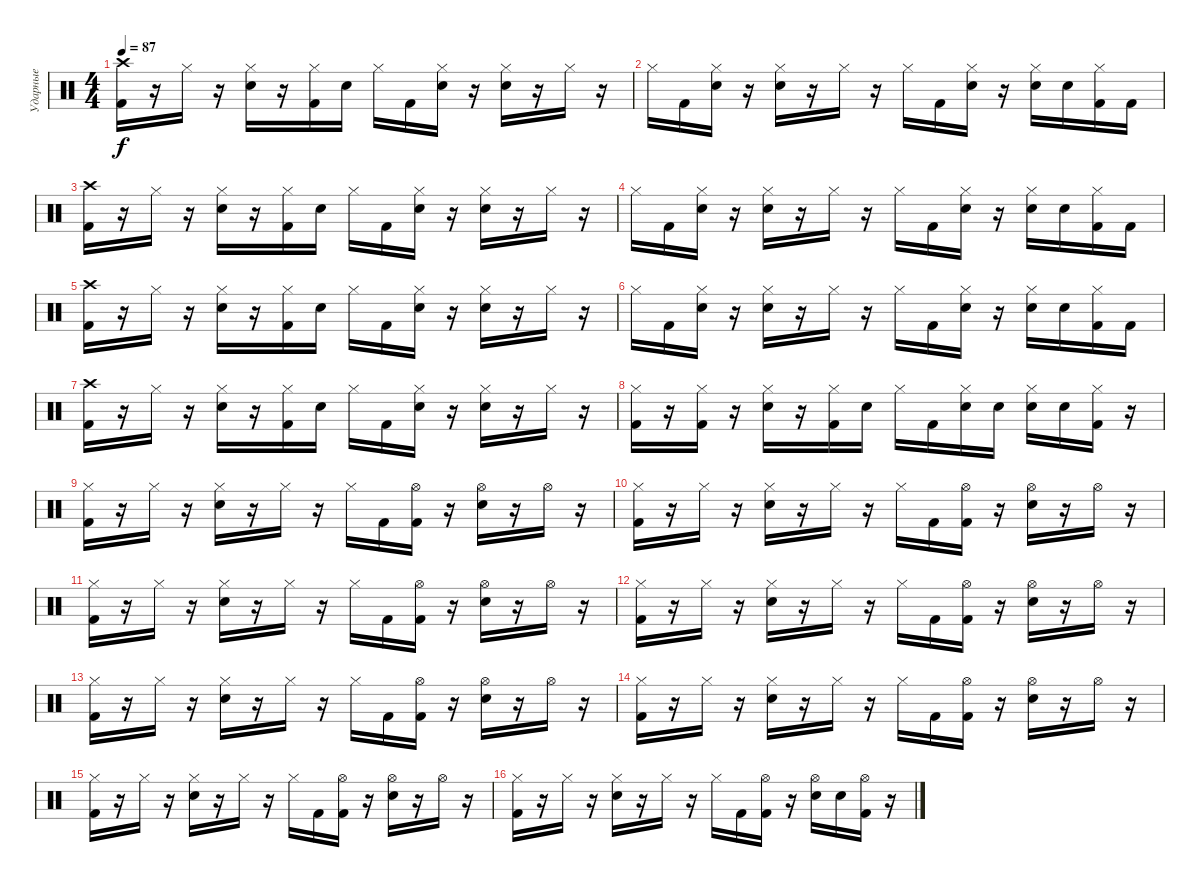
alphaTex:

\track ("Ударные" "Ударные") {instrument percussion}
\staff {score}
\articulation defaults
\ts (4 4)
\tempo 87
\clef neutral
\ks c
("Crash high (hit)" "Kick (hit) 2").16{dy f} r.16 "Hi-Hat (closed)".16 r.16 ("Hi-Hat (closed)" "Electric Snare (hit)").16 r.16 ("Hi-Hat (closed)" "Kick (hit) 2").16 "Electric Snare (hit)".16 "Hi-Hat (closed)".16 "Kick (hit) 2".16 ("Hi-Hat (closed)" "Electric Snare (hit)").16 r.16 ("Hi-Hat (closed)" "Electric Snare (hit)").16 r.16 "Hi-Hat (closed)".16 r.16 |
"Hi-Hat (closed)".16 "Kick (hit) 2".16 ("Hi-Hat (closed)" "Electric Snare (hit)").16 r.16 ("Hi-Hat (closed)" "Electric Snare (hit)").16 r.16 "Hi-Hat (closed)".16 r.16 "Hi-Hat (closed)".16 "Kick (hit) 2".16 ("Hi-Hat (closed)" "Electric Snare (hit)").16 r.16 ("Hi-Hat (closed)" "Electric Snare (hit)").16 "Electric Snare (hit)".16 ("Hi-Hat (closed)" "Kick (hit) 2").16 "Kick (hit) 2".16 |
("Crash high (hit)" "Kick (hit) 2").16 r.16 "Hi-Hat (closed)".16 r.16 ("Hi-Hat (closed)" "Electric Snare (hit)").16 r.16 ("Hi-Hat (closed)" "Kick (hit) 2").16 "Electric Snare (hit)".16 "Hi-Hat (closed)".16 "Kick (hit) 2".16 ("Hi-Hat (closed)" "Electric Snare (hit)").16 r.16 ("Hi-Hat (closed)" "Electric Snare (hit)").16 r.16 "Hi-Hat (closed)".16 r.16 |
"Hi-Hat (closed)".16 "Kick (hit) 2".16 ("Hi-Hat (closed)" "Electric Snare (hit)").16 r.16 ("Hi-Hat (closed)" "Electric Snare (hit)").16 r.16 "Hi-Hat (closed)".16 r.16 "Hi-Hat (closed)".16 "Kick (hit) 2".16 ("Hi-Hat (closed)" "Electric Snare (hit)").16 r.16 ("Hi-Hat (closed)" "Electric Snare (hit)").16 "Electric Snare (hit)".16 ("Hi-Hat (closed)" "Kick (hit) 2").16 "Kick (hit) 2".16 |
("Crash high (hit)" "Kick (hit) 2").16 r.16 "Hi-Hat (closed)".16 r.16 ("Hi-Hat (closed)" "Electric Snare (hit)").16 r.16 ("Hi-Hat (closed)" "Kick (hit) 2").16 "Electric Snare (hit)".16 "Hi-Hat (closed)".16 "Kick (hit) 2".16 ("Hi-Hat (closed)" "Electric Snare (hit)").16 r.16 ("Hi-Hat (closed)" "Electric Snare (hit)").16 r.16 "Hi-Hat (closed)".16 r.16 |
"Hi-Hat (closed)".16 "Kick (hit) 2".16 ("Hi-Hat (closed)" "Electric Snare (hit)").16 r.16 ("Hi-Hat (closed)" "Electric Snare (hit)").16 r.16 "Hi-Hat (closed)".16 r.16 "Hi-Hat (closed)".16 "Kick (hit) 2".16 ("Hi-Hat (closed)" "Electric Snare (hit)").16 r.16 ("Hi-Hat (closed)" "Electric Snare (hit)").16 "Electric Snare (hit)".16 ("Hi-Hat (closed)" "Kick (hit) 2").16 "Kick (hit) 2".16 |
("Crash high (hit)" "Kick (hit) 2").16 r.16 "Hi-Hat (closed)".16 r.16 ("Hi-Hat (closed)" "Electric Snare (hit)").16 r.16 ("Hi-Hat (closed)" "Kick (hit) 2").16 "Electric Snare (hit)".16 "Hi-Hat (closed)".16 "Kick (hit) 2".16 ("Hi-Hat (closed)" "Electric Snare (hit)").16 r.16 ("Hi-Hat (closed)" "Electric Snare (hit)").16 r.16 "Hi-Hat (closed)".16 r.16 |
("Hi-Hat (closed)" "Kick (hit) 2").16 r.16 ("Hi-Hat (closed)" "Kick (hit) 2").16 r.16 ("Hi-Hat (closed)" "Electric Snare (hit)").16 r.16 ("Hi-Hat (closed)" "Kick (hit) 2").16 "Electric Snare (hit)".16 "Hi-Hat (closed)".16 "Kick (hit) 2".16 ("Hi-Hat (closed)" "Electric Snare (hit)").16 "Electric Snare (hit)".16 ("Hi-Hat (closed)" "Electric Snare (hit)").16 "Electric Snare (hit)".16 ("Hi-Hat (closed)" "Kick (hit) 2").16 r.16 |
("Hi-Hat (closed)" "Kick (hit) 2").16 r.16 "Hi-Hat (closed)".16 r.16 ("Hi-Hat (closed)" "Electric Snare (hit)").16 r.16 "Hi-Hat (closed)".16 r.16 "Hi-Hat (closed)".16 "Kick (hit) 2".16 ("Hi-Hat (open)" "Kick (hit) 2").16 r.16 ("Hi-Hat (open)" "Electric Snare (hit)").16 r.16 "Hi-Hat (open)".16 r.16 |
("Hi-Hat (closed)" "Kick (hit) 2").16 r.16 "Hi-Hat (closed)".16 r.16 ("Hi-Hat (closed)" "Electric Snare (hit)").16 r.16 "Hi-Hat (closed)".16 r.16 "Hi-Hat (closed)".16 "Kick (hit) 2".16 ("Hi-Hat (open)" "Kick (hit) 2").16 r.16 ("Hi-Hat (open)" "Electric Snare (hit)").16 r.16 "Hi-Hat (open)".16 r.16 |
("Hi-Hat (closed)" "Kick (hit) 2").16 r.16 "Hi-Hat (closed)".16 r.16 ("Hi-Hat (closed)" "Electric Snare (hit)").16 r.16 "Hi-Hat (closed)".16 r.16 "Hi-Hat (closed)".16 "Kick (hit) 2".16 ("Hi-Hat (open)" "Kick (hit) 2").16 r.16 ("Hi-Hat (open)" "Electric Snare (hit)").16 r.16 "Hi-Hat (open)".16 r.16 |
("Hi-Hat (closed)" "Kick (hit) 2").16 r.16 "Hi-Hat (closed)".16 r.16 ("Hi-Hat (closed)" "Electric Snare (hit)").16 r.16 "Hi-Hat (closed)".16 r.16 "Hi-Hat (closed)".16 "Kick (hit) 2".16 ("Hi-Hat (open)" "Kick (hit) 2").16 r.16 ("Hi-Hat (open)" "Electric Snare (hit)").16 r.16 "Hi-Hat (open)".16 r.16 |
("Hi-Hat (closed)" "Kick (hit) 2").16 r.16 "Hi-Hat (closed)".16 r.16 ("Hi-Hat (closed)" "Electric Snare (hit)").16 r.16 "Hi-Hat (closed)".16 r.16 "Hi-Hat (closed)".16 "Kick (hit) 2".16 ("Hi-Hat (open)" "Kick (hit) 2").16 r.16 ("Hi-Hat (open)" "Electric Snare (hit)").16 r.16 "Hi-Hat (open)".16 r.16 |
("Hi-Hat (closed)" "Kick (hit) 2").16 r.16 "Hi-Hat (closed)".16 r.16 ("Hi-Hat (closed)" "Electric Snare (hit)").16 r.16 "Hi-Hat (closed)".16 r.16 "Hi-Hat (closed)".16 "Kick (hit) 2".16 ("Hi-Hat (open)" "Kick (hit) 2").16 r.16 ("Hi-Hat (open)" "Electric Snare (hit)").16 r.16 "Hi-Hat (open)".16 r.16 |
("Hi-Hat (closed)" "Kick (hit) 2").16 r.16 "Hi-Hat (closed)".16 r.16 ("Hi-Hat (closed)" "Electric Snare (hit)").16 r.16 "Hi-Hat (closed)".16 r.16 "Hi-Hat (closed)".16 "Kick (hit) 2".16 ("Hi-Hat (open)" "Kick (hit) 2").16 r.16 ("Hi-Hat (open)" "Electric Snare (hit)").16 r.16 "Hi-Hat (open)".16 r.16 |
("Hi-Hat (closed)" "Kick (hit) 2").16 r.16 "Hi-Hat (closed)".16 r.16 ("Hi-Hat (closed)" "Electric Snare (hit)").16 r.16 "Hi-Hat (closed)".16 r.16 "Hi-Hat (closed)".16 "Kick (hit) 2".16 ("Hi-Hat (open)" "Kick (hit) 2").16 r.16 ("Hi-Hat (open)" "Electric Snare (hit)").16 "Electric Snare (hit)".16 ("Hi-Hat (open)" "Kick (hit) 2").16 r.16
